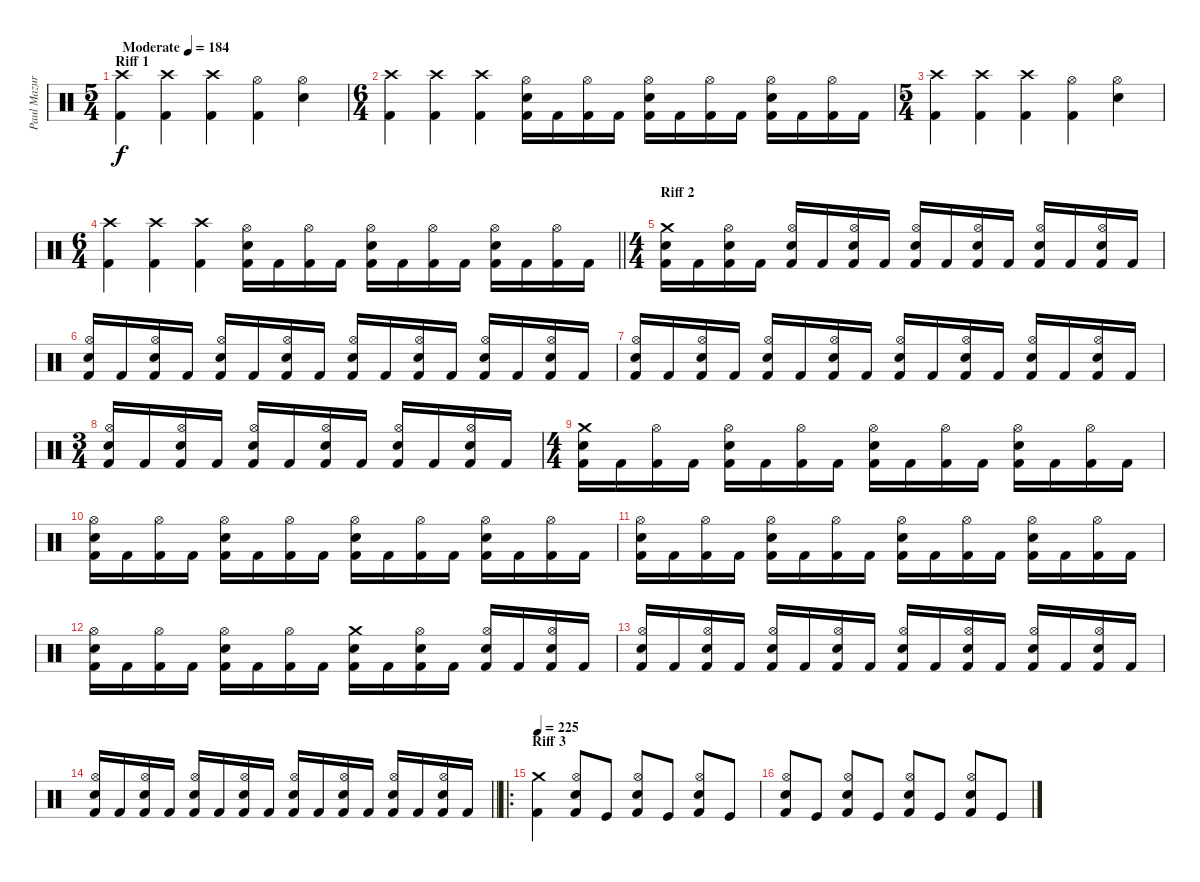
\track ("Paul Mazurkiewicz" "Paul Mazur") {instrument percussion}
\staff {score}
\articulation defaults
\ts (5 4)
\section ("" "Riff 1")
\tempo (184 "Moderate")
\clef neutral
\ks c
("Crash high (hit)" "Kick (hit) 2").4{dy f} ("Crash high (hit)" "Kick (hit) 2").4 ("Crash high (hit)" "Kick (hit) 2").4 ("Hi-Hat (open)" "Kick (hit) 2").4 ("Hi-Hat (open)" "Electric Snare (hit)").4 |
\ts (6 4)
("Crash high (hit)" "Kick (hit) 2").4 ("Crash high (hit)" "Kick (hit) 2").4 ("Crash high (hit)" "Kick (hit) 2").4 ("Hi-Hat (open)" "Electric Snare (hit)" "Kick (hit) 2").16 "Kick (hit) 2".16 ("Hi-Hat (open)" "Kick (hit) 2").16 "Kick (hit) 2".16 ("Hi-Hat (open)" "Electric Snare (hit)" "Kick (hit) 2").16 "Kick (hit) 2".16 ("Hi-Hat (open)" "Kick (hit) 2").16 "Kick (hit) 2".16 ("Hi-Hat (open)" "Electric Snare (hit)" "Kick (hit) 2").16 "Kick (hit) 2".16 ("Hi-Hat (open)" "Kick (hit) 2").16 "Kick (hit) 2".16 |
\ts (5 4)
("Crash high (hit)" "Kick (hit) 2").4 ("Crash high (hit)" "Kick (hit) 2").4 ("Crash high (hit)" "Kick (hit) 2").4 ("Hi-Hat (open)" "Kick (hit) 2").4 ("Hi-Hat (open)" "Electric Snare (hit)").4 |
\ts (6 4)
\barLineRight lightlight
("Crash high (hit)" "Kick (hit) 2").4 ("Crash high (hit)" "Kick (hit) 2").4 ("Crash high (hit)" "Kick (hit) 2").4 ("Hi-Hat (open)" "Electric Snare (hit)" "Kick (hit) 2").16 "Kick (hit) 2".16 ("Hi-Hat (open)" "Kick (hit) 2").16 "Kick (hit) 2".16 ("Hi-Hat (open)" "Electric Snare (hit)" "Kick (hit) 2").16 "Kick (hit) 2".16 ("Hi-Hat (open)" "Kick (hit) 2").16 "Kick (hit) 2".16 ("Hi-Hat (open)" "Electric Snare (hit)" "Kick (hit) 2").16 "Kick (hit) 2".16 ("Hi-Hat (open)" "Kick (hit) 2").16 "Kick (hit) 2".16 |
\ts (4 4)
\section ("" "Riff 2")
("Crash medium (hit)" "Electric Snare (hit)" "Kick (hit) 2").16 "Kick (hit) 2".16 ("Hi-Hat (open)" "Electric Snare (hit)" "Kick (hit) 2").16 "Kick (hit) 2".16 ("Hi-Hat (open)" "Electric Snare (hit)" "Kick (hit) 2").16 "Kick (hit) 2".16 ("Hi-Hat (open)" "Electric Snare (hit)" "Kick (hit) 2").16 "Kick (hit) 2".16 ("Hi-Hat (open)" "Electric Snare (hit)" "Kick (hit) 2").16 "Kick (hit) 2".16 ("Hi-Hat (open)" "Electric Snare (hit)" "Kick (hit) 2").16 "Kick (hit) 2".16 ("Hi-Hat (open)" "Electric Snare (hit)" "Kick (hit) 2").16 "Kick (hit) 2".16 ("Hi-Hat (open)" "Electric Snare (hit)" "Kick (hit) 2").16 "Kick (hit) 2".16 |
("Hi-Hat (open)" "Electric Snare (hit)" "Kick (hit) 2").16 "Kick (hit) 2".16 ("Hi-Hat (open)" "Electric Snare (hit)" "Kick (hit) 2").16 "Kick (hit) 2".16 ("Hi-Hat (open)" "Electric Snare (hit)" "Kick (hit) 2").16 "Kick (hit) 2".16 ("Hi-Hat (open)" "Electric Snare (hit)" "Kick (hit) 2").16 "Kick (hit) 2".16 ("Hi-Hat (open)" "Electric Snare (hit)" "Kick (hit) 2").16 "Kick (hit) 2".16 ("Hi-Hat (open)" "Electric Snare (hit)" "Kick (hit) 2").16 "Kick (hit) 2".16 ("Hi-Hat (open)" "Electric Snare (hit)" "Kick (hit) 2").16 "Kick (hit) 2".16 ("Hi-Hat (open)" "Electric Snare (hit)" "Kick (hit) 2").16 "Kick (hit) 2".16 |
("Hi-Hat (open)" "Electric Snare (hit)" "Kick (hit) 2").16 "Kick (hit) 2".16 ("Hi-Hat (open)" "Electric Snare (hit)" "Kick (hit) 2").16 "Kick (hit) 2".16 ("Hi-Hat (open)" "Electric Snare (hit)" "Kick (hit) 2").16 "Kick (hit) 2".16 ("Hi-Hat (open)" "Electric Snare (hit)" "Kick (hit) 2").16 "Kick (hit) 2".16 ("Hi-Hat (open)" "Electric Snare (hit)" "Kick (hit) 2").16 "Kick (hit) 2".16 ("Hi-Hat (open)" "Electric Snare (hit)" "Kick (hit) 2").16 "Kick (hit) 2".16 ("Hi-Hat (open)" "Electric Snare (hit)" "Kick (hit) 2").16 "Kick (hit) 2".16 ("Hi-Hat (open)" "Electric Snare (hit)" "Kick (hit) 2").16 "Kick (hit) 2".16 |
\ts (3 4)
("Hi-Hat (open)" "Electric Snare (hit)" "Kick (hit) 2").16 "Kick (hit) 2".16 ("Hi-Hat (open)" "Electric Snare (hit)" "Kick (hit) 2").16 "Kick (hit) 2".16 ("Hi-Hat (open)" "Electric Snare (hit)" "Kick (hit) 2").16 "Kick (hit) 2".16 ("Hi-Hat (open)" "Electric Snare (hit)" "Kick (hit) 2").16 "Kick (hit) 2".16 ("Hi-Hat (open)" "Electric Snare (hit)" "Kick (hit) 2").16 "Kick (hit) 2".16 ("Hi-Hat (open)" "Electric Snare (hit)" "Kick (hit) 2").16 "Kick (hit) 2".16 |
\ts (4 4)
("Crash medium (hit)" "Electric Snare (hit)" "Kick (hit) 2").16 "Kick (hit) 2".16 ("Hi-Hat (open)" "Kick (hit) 2").16 "Kick (hit) 2".16 ("Hi-Hat (open)" "Electric Snare (hit)" "Kick (hit) 2").16 "Kick (hit) 2".16 ("Hi-Hat (open)" "Kick (hit) 2").16 "Kick (hit) 2".16 ("Hi-Hat (open)" "Electric Snare (hit)" "Kick (hit) 2").16 "Kick (hit) 2".16 ("Hi-Hat (open)" "Kick (hit) 2").16 "Kick (hit) 2".16 ("Hi-Hat (open)" "Electric Snare (hit)" "Kick (hit) 2").16 "Kick (hit) 2".16 ("Hi-Hat (open)" "Kick (hit) 2").16 "Kick (hit) 2".16 |
("Hi-Hat (open)" "Electric Snare (hit)" "Kick (hit) 2").16 "Kick (hit) 2".16 ("Hi-Hat (open)" "Kick (hit) 2").16 "Kick (hit) 2".16 ("Hi-Hat (open)" "Electric Snare (hit)" "Kick (hit) 2").16 "Kick (hit) 2".16 ("Hi-Hat (open)" "Kick (hit) 2").16 "Kick (hit) 2".16 ("Hi-Hat (open)" "Electric Snare (hit)" "Kick (hit) 2").16 "Kick (hit) 2".16 ("Hi-Hat (open)" "Kick (hit) 2").16 "Kick (hit) 2".16 ("Hi-Hat (open)" "Electric Snare (hit)" "Kick (hit) 2").16 "Kick (hit) 2".16 ("Hi-Hat (open)" "Kick (hit) 2").16 "Kick (hit) 2".16 |
("Hi-Hat (open)" "Electric Snare (hit)" "Kick (hit) 2").16 "Kick (hit) 2".16 ("Hi-Hat (open)" "Kick (hit) 2").16 "Kick (hit) 2".16 ("Hi-Hat (open)" "Electric Snare (hit)" "Kick (hit) 2").16 "Kick (hit) 2".16 ("Hi-Hat (open)" "Kick (hit) 2").16 "Kick (hit) 2".16 ("Hi-Hat (open)" "Electric Snare (hit)" "Kick (hit) 2").16 "Kick (hit) 2".16 ("Hi-Hat (open)" "Kick (hit) 2").16 "Kick (hit) 2".16 ("Hi-Hat (open)" "Electric Snare (hit)" "Kick (hit) 2").16 "Kick (hit) 2".16 ("Hi-Hat (open)" "Kick (hit) 2").16 "Kick (hit) 2".16 |
("Hi-Hat (open)" "Electric Snare (hit)" "Kick (hit) 2").16 "Kick (hit) 2".16 ("Hi-Hat (open)" "Kick (hit) 2").16 "Kick (hit) 2".16 ("Hi-Hat (open)" "Electric Snare (hit)" "Kick (hit) 2").16 "Kick (hit) 2".16 ("Hi-Hat (open)" "Kick (hit) 2").16 "Kick (hit) 2".16 ("Crash medium (hit)" "Electric Snare (hit)" "Kick (hit) 2").16 "Kick (hit) 2".16 ("Hi-Hat (open)" "Electric Snare (hit)" "Kick (hit) 2").16 "Kick (hit) 2".16 ("Hi-Hat (open)" "Electric Snare (hit)" "Kick (hit) 2").16 "Kick (hit) 2".16 ("Hi-Hat (open)" "Electric Snare (hit)" "Kick (hit) 2").16 "Kick (hit) 2".16 |
("Hi-Hat (open)" "Electric Snare (hit)" "Kick (hit) 2").16 "Kick (hit) 2".16 ("Hi-Hat (open)" "Electric Snare (hit)" "Kick (hit) 2").16 "Kick (hit) 2".16 ("Hi-Hat (open)" "Electric Snare (hit)" "Kick (hit) 2").16 "Kick (hit) 2".16 ("Hi-Hat (open)" "Electric Snare (hit)" "Kick (hit) 2").16 "Kick (hit) 2".16 ("Hi-Hat (open)" "Electric Snare (hit)" "Kick (hit) 2").16 "Kick (hit) 2".16 ("Hi-Hat (open)" "Electric Snare (hit)" "Kick (hit) 2").16 "Kick (hit) 2".16 ("Hi-Hat (open)" "Electric Snare (hit)" "Kick (hit) 2").16 "Kick (hit) 2".16 ("Hi-Hat (open)" "Electric Snare (hit)" "Kick (hit) 2").16 "Kick (hit) 2".16 |
\barLineRight lightlight
("Hi-Hat (open)" "Electric Snare (hit)" "Kick (hit) 2").16 "Kick (hit) 2".16 ("Hi-Hat (open)" "Electric Snare (hit)" "Kick (hit) 2").16 "Kick (hit) 2".16 ("Hi-Hat (open)" "Electric Snare (hit)" "Kick (hit) 2").16 "Kick (hit) 2".16 ("Hi-Hat (open)" "Electric Snare (hit)" "Kick (hit) 2").16 "Kick (hit) 2".16 ("Hi-Hat (open)" "Electric Snare (hit)" "Kick (hit) 2").16 "Kick (hit) 2".16 ("Hi-Hat (open)" "Electric Snare (hit)" "Kick (hit) 2").16 "Kick (hit) 2".16 ("Hi-Hat (open)" "Electric Snare (hit)" "Kick (hit) 2").16 "Kick (hit) 2".16 ("Hi-Hat (open)" "Electric Snare (hit)" "Kick (hit) 2").16 "Kick (hit) 2".16 |
\ro
\section ("" "Riff 3")
\tempo 225
("Crash medium (hit)" "Kick (hit) 2").4 ("Hi-Hat (open)" "Electric Snare (hit)" "Kick (hit) 2").8 "Kick (hit)".8 ("Hi-Hat (open)" "Electric Snare (hit)" "Kick (hit) 2").8 "Kick (hit)".8 ("Hi-Hat (open)" "Electric Snare (hit)" "Kick (hit) 2").8 "Kick (hit)".8 |
("Hi-Hat (open)" "Electric Snare (hit)" "Kick (hit) 2").8 "Kick (hit)".8 ("Hi-Hat (open)" "Electric Snare (hit)" "Kick (hit) 2").8 "Kick (hit)".8 ("Hi-Hat (open)" "Electric Snare (hit)" "Kick (hit) 2").8 "Kick (hit)".8 ("Hi-Hat (open)" "Electric Snare (hit)" "Kick (hit) 2").8 "Kick (hit)".8
